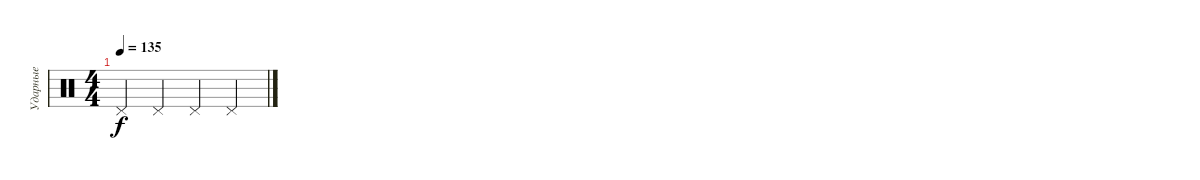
\track ("Ударные" "Ударные") {instrument percussion}
\staff {score}
\articulation defaults
\ts (4 4)
\tempo 135
\clef neutral
\ks c "Pedal Hi-Hat (hit)".4{dy f} "Pedal Hi-Hat (hit)".4 "Pedal Hi-Hat (hit)".4 "Pedal Hi-Hat (hit)".4
